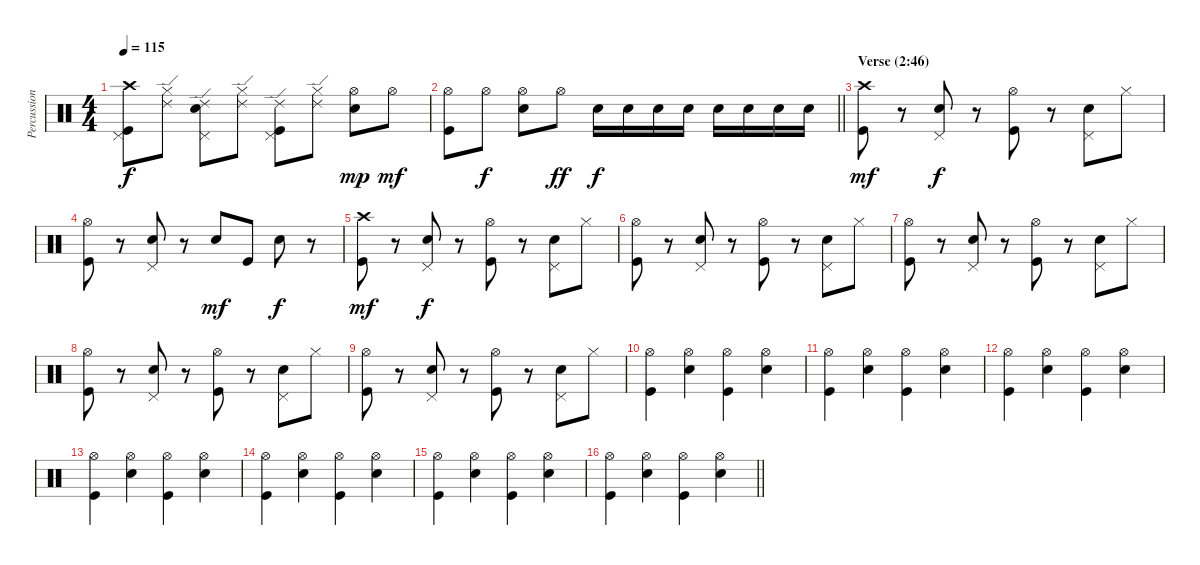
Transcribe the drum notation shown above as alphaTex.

\track ("Percussioni" "Percussion") {instrument percussion}
\staff {score}
\articulation defaults
\ts (4 4)
\tempo 115
\clef neutral
\ks c
("Crash high (hit)" "Pedal Hi-Hat (hit)" "Kick (hit)").8{dy f} ("Ride (edge) 2" "Hi-Hat (closed)").8 ("Ride (edge) 2" "Pedal Hi-Hat (hit)" "Electric Snare (hit)").8 ("Ride (edge) 2" "Hi-Hat (closed)").8 ("Ride (edge) 2" "Pedal Hi-Hat (hit)" "Kick (hit)").8 ("Ride (edge) 2" "Hi-Hat (closed)").8 ("Hi-Hat (open)" "Electric Snare (hit)").8{dy mp} "Hi-Hat (open)".8{dy mf} |
\barLineRight lightlight
("Hi-Hat (open)" "Kick (hit)").8 "Hi-Hat (open)".8{dy f} ("Hi-Hat (open)" "Electric Snare (hit)").8 "Hi-Hat (open)".8{dy ff} "Electric Snare (hit)".16{dy f} "Electric Snare (hit)".16 "Electric Snare (hit)".16 "Electric Snare (hit)".16 "Electric Snare (hit)".16 "Electric Snare (hit)".16 "Electric Snare (hit)".16 "Electric Snare (hit)".16 |
\section ("" "Verse (2:46)")
("Crash high (hit)" "Kick (hit)").8{dy mf} r.8 ("Pedal Hi-Hat (hit)" "Electric Snare (hit)").8{dy f} r.8 ("Hi-Hat (open)" "Kick (hit)").8 r.8 ("Pedal Hi-Hat (hit)" "Electric Snare (hit)").8 "Hi-Hat (closed)".8 |
("Hi-Hat (open)" "Kick (hit)").8 r.8 ("Pedal Hi-Hat (hit)" "Electric Snare (hit)").8 r.8 "Electric Snare (hit)".8{dy mf} "Kick (hit)".8 "Electric Snare (hit)".8{dy f} r.8 |
("Crash high (hit)" "Kick (hit)").8{dy mf} r.8 ("Pedal Hi-Hat (hit)" "Electric Snare (hit)").8{dy f} r.8 ("Hi-Hat (open)" "Kick (hit)").8 r.8 ("Pedal Hi-Hat (hit)" "Electric Snare (hit)").8 "Hi-Hat (closed)".8 |
("Hi-Hat (open)" "Kick (hit)").8 r.8 ("Pedal Hi-Hat (hit)" "Electric Snare (hit)").8 r.8 ("Hi-Hat (open)" "Kick (hit)").8 r.8 ("Pedal Hi-Hat (hit)" "Electric Snare (hit)").8 "Hi-Hat (closed)".8 |
("Hi-Hat (open)" "Kick (hit)").8 r.8 ("Pedal Hi-Hat (hit)" "Electric Snare (hit)").8 r.8 ("Hi-Hat (open)" "Kick (hit)").8 r.8 ("Pedal Hi-Hat (hit)" "Electric Snare (hit)").8 "Hi-Hat (closed)".8 |
("Hi-Hat (open)" "Kick (hit)").8 r.8 ("Pedal Hi-Hat (hit)" "Electric Snare (hit)").8 r.8 ("Hi-Hat (open)" "Kick (hit)").8 r.8 ("Pedal Hi-Hat (hit)" "Electric Snare (hit)").8 "Hi-Hat (closed)".8 |
("Hi-Hat (open)" "Kick (hit)").8 r.8 ("Pedal Hi-Hat (hit)" "Electric Snare (hit)").8 r.8 ("Hi-Hat (open)" "Kick (hit)").8 r.8 ("Pedal Hi-Hat (hit)" "Electric Snare (hit)").8 "Hi-Hat (closed)".8 |
("Hi-Hat (open)" "Kick (hit)").4 ("Hi-Hat (open)" "Electric Snare (hit)").4 ("Hi-Hat (open)" "Kick (hit)").4 ("Hi-Hat (open)" "Electric Snare (hit)").4 |
("Hi-Hat (open)" "Kick (hit)").4 ("Hi-Hat (open)" "Electric Snare (hit)").4 ("Hi-Hat (open)" "Kick (hit)").4 ("Hi-Hat (open)" "Electric Snare (hit)").4 |
("Hi-Hat (open)" "Kick (hit)").4 ("Hi-Hat (open)" "Electric Snare (hit)").4 ("Hi-Hat (open)" "Kick (hit)").4 ("Hi-Hat (open)" "Electric Snare (hit)").4 |
("Hi-Hat (open)" "Kick (hit)").4 ("Hi-Hat (open)" "Electric Snare (hit)").4 ("Hi-Hat (open)" "Kick (hit)").4 ("Hi-Hat (open)" "Electric Snare (hit)").4 |
("Hi-Hat (open)" "Kick (hit)").4 ("Hi-Hat (open)" "Electric Snare (hit)").4 ("Hi-Hat (open)" "Kick (hit)").4 ("Hi-Hat (open)" "Electric Snare (hit)").4 |
("Hi-Hat (open)" "Kick (hit)").4 ("Hi-Hat (open)" "Electric Snare (hit)").4 ("Hi-Hat (open)" "Kick (hit)").4 ("Hi-Hat (open)" "Electric Snare (hit)").4 |
\barLineRight lightlight
("Hi-Hat (open)" "Kick (hit)").4 ("Hi-Hat (open)" "Electric Snare (hit)").4 ("Hi-Hat (open)" "Kick (hit)").4 ("Hi-Hat (open)" "Electric Snare (hit)").4
